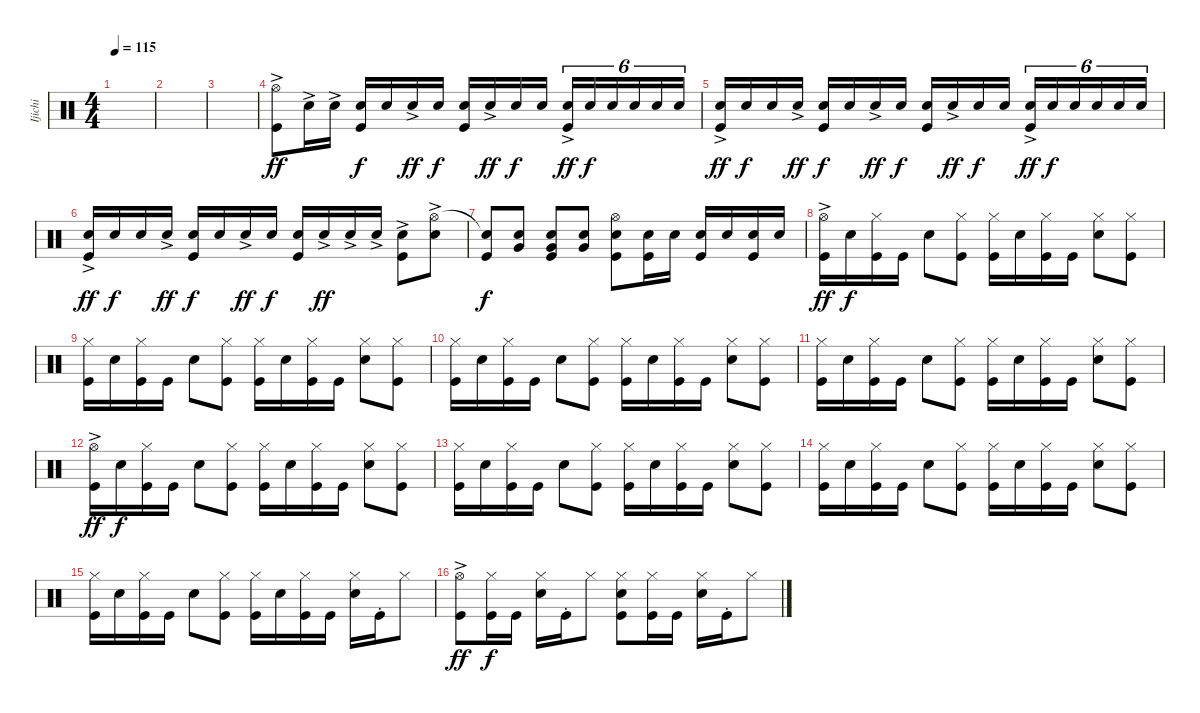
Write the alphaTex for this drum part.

\track ("Ijichi" "Ijichi") {instrument percussion}
\staff {score}
\articulation defaults
\ts (4 4)
\tempo 115
\clef neutral
\ks c
|
|
|
("Hi-Hat (open)"{ac} "Kick (hit)").8{dy ff} "Snare (hit) 2"{ac}.16 "Snare (hit) 2"{ac}.16 ("Snare (hit) 2" "Kick (hit)").16{dy f} "Snare (hit) 2".16 "Snare (hit) 2"{ac}.16{dy ff} "Snare (hit) 2".16{dy f} ("Snare (hit) 2" "Kick (hit)").16 "Snare (hit) 2"{ac}.16{dy ff} "Snare (hit) 2".16{dy f} "Snare (hit) 2".16 ("Snare (hit) 2"{ac} "Kick (hit)").16{tu (6 4) dy ff} "Snare (hit) 2".16{tu (6 4) dy f} "Snare (hit) 2".16{tu (6 4)} "Snare (hit) 2".16{tu (6 4)} "Snare (hit) 2".16{tu (6 4)} "Snare (hit) 2".16{tu (6 4)} |
("Snare (hit) 2"{ac} "Kick (hit)").16{dy ff} "Snare (hit) 2".16{dy f} "Snare (hit) 2".16 "Snare (hit) 2"{ac}.16{dy ff} ("Snare (hit) 2" "Kick (hit)").16{dy f} "Snare (hit) 2".16 "Snare (hit) 2"{ac}.16{dy ff} "Snare (hit) 2".16{dy f} ("Snare (hit) 2" "Kick (hit)").16 "Snare (hit) 2"{ac}.16{dy ff} "Snare (hit) 2".16{dy f} "Snare (hit) 2".16 ("Snare (hit) 2"{ac} "Kick (hit)").16{tu (6 4) dy ff} "Snare (hit) 2".16{tu (6 4) dy f} "Snare (hit) 2".16{tu (6 4)} "Snare (hit) 2".16{tu (6 4)} "Snare (hit) 2".16{tu (6 4)} "Snare (hit) 2".16{tu (6 4)} |
("Snare (hit) 2"{ac} "Kick (hit)").16{dy ff} "Snare (hit) 2".16{dy f} "Snare (hit) 2".16 "Snare (hit) 2"{ac}.16{dy ff} ("Snare (hit) 2" "Kick (hit)").16{dy f} "Snare (hit) 2".16 "Snare (hit) 2"{ac}.16{dy ff} "Snare (hit) 2".16{dy f} ("Snare (hit) 2" "Kick (hit)").16 "Snare (hit) 2"{ac}.16{dy ff} "Snare (hit) 2"{ac}.16 "Snare (hit) 2"{ac}.16 ("Snare (hit) 2"{ac} "Kick (hit)").8 ("Hi-Hat (open)"{ac} "Snare (hit) 2").8 |
("Snare (hit)"{t} "Kick (hit)").8{dy f} ("Snare (hit) 2" "Very Low Tom (hit)").8 ("Snare (hit) 2" "Very Low Tom (hit)" "Kick (hit)").8 ("Snare (hit) 2" "Very Low Tom (hit)").8 ("Hi-Hat (open)" "Snare (hit) 2" "Kick (hit)").8 ("Snare (hit) 2" "Kick (hit)").16 "Snare (hit) 2".16 ("Snare (hit) 2" "Kick (hit)").16 "Snare (hit) 2".16 ("Snare (hit) 2" "Kick (hit)").16 "Snare (hit) 2".16 |
("Hi-Hat (open)"{ac} "Kick (hit)").16{dy ff} "Snare (hit) 2".16{dy f} ("Hi-Hat (closed)" "Kick (hit)").16 "Kick (hit)".16 "Snare (hit) 2".8 ("Hi-Hat (closed)" "Kick (hit)").8 ("Hi-Hat (closed)" "Kick (hit)").16 "Snare (hit) 2".16 ("Hi-Hat (closed)" "Kick (hit)").16 "Kick (hit)".16 ("Hi-Hat (closed)" "Snare (hit) 2").8 ("Hi-Hat (closed)" "Kick (hit)").8 |
("Hi-Hat (closed)" "Kick (hit)").16 "Snare (hit) 2".16 ("Hi-Hat (closed)" "Kick (hit)").16 "Kick (hit)".16 "Snare (hit) 2".8 ("Hi-Hat (closed)" "Kick (hit)").8 ("Hi-Hat (closed)" "Kick (hit)").16 "Snare (hit) 2".16 ("Hi-Hat (closed)" "Kick (hit)").16 "Kick (hit)".16 ("Hi-Hat (closed)" "Snare (hit) 2").8 ("Hi-Hat (closed)" "Kick (hit)").8 |
("Hi-Hat (closed)" "Kick (hit)").16 "Snare (hit) 2".16 ("Hi-Hat (closed)" "Kick (hit)").16 "Kick (hit)".16 "Snare (hit) 2".8 ("Hi-Hat (closed)" "Kick (hit)").8 ("Hi-Hat (closed)" "Kick (hit)").16 "Snare (hit) 2".16 ("Hi-Hat (closed)" "Kick (hit)").16 "Kick (hit)".16 ("Hi-Hat (closed)" "Snare (hit) 2").8 ("Hi-Hat (closed)" "Kick (hit)").8 |
("Hi-Hat (closed)" "Kick (hit)").16 "Snare (hit) 2".16 ("Hi-Hat (closed)" "Kick (hit)").16 "Kick (hit)".16 "Snare (hit) 2".8 ("Hi-Hat (closed)" "Kick (hit)").8 ("Hi-Hat (closed)" "Kick (hit)").16 "Snare (hit) 2".16 ("Hi-Hat (closed)" "Kick (hit)").16 "Kick (hit)".16 ("Hi-Hat (closed)" "Snare (hit) 2").8 ("Hi-Hat (closed)" "Kick (hit)").8 |
("Hi-Hat (open)"{ac} "Kick (hit)").16{dy ff} "Snare (hit) 2".16{dy f} ("Hi-Hat (closed)" "Kick (hit)").16 "Kick (hit)".16 "Snare (hit) 2".8 ("Hi-Hat (closed)" "Kick (hit)").8 ("Hi-Hat (closed)" "Kick (hit)").16 "Snare (hit) 2".16 ("Hi-Hat (closed)" "Kick (hit)").16 "Kick (hit)".16 ("Hi-Hat (closed)" "Snare (hit) 2").8 ("Hi-Hat (closed)" "Kick (hit)").8 |
("Hi-Hat (closed)" "Kick (hit)").16 "Snare (hit) 2".16 ("Hi-Hat (closed)" "Kick (hit)").16 "Kick (hit)".16 "Snare (hit) 2".8 ("Hi-Hat (closed)" "Kick (hit)").8 ("Hi-Hat (closed)" "Kick (hit)").16 "Snare (hit) 2".16 ("Hi-Hat (closed)" "Kick (hit)").16 "Kick (hit)".16 ("Hi-Hat (closed)" "Snare (hit) 2").8 ("Hi-Hat (closed)" "Kick (hit)").8 |
("Hi-Hat (closed)" "Kick (hit)").16 "Snare (hit) 2".16 ("Hi-Hat (closed)" "Kick (hit)").16 "Kick (hit)".16 "Snare (hit) 2".8 ("Hi-Hat (closed)" "Kick (hit)").8 ("Hi-Hat (closed)" "Kick (hit)").16 "Snare (hit) 2".16 ("Hi-Hat (closed)" "Kick (hit)").16 "Kick (hit)".16 ("Hi-Hat (closed)" "Snare (hit) 2").8 ("Hi-Hat (closed)" "Kick (hit)").8 |
("Hi-Hat (closed)" "Kick (hit)").16 "Snare (hit) 2".16 ("Hi-Hat (closed)" "Kick (hit)").16 "Kick (hit)".16 "Snare (hit) 2".8 ("Hi-Hat (closed)" "Kick (hit)").8 ("Hi-Hat (closed)" "Kick (hit)").16 "Snare (hit) 2".16 ("Hi-Hat (closed)" "Kick (hit)").16 "Kick (hit)".16 ("Hi-Hat (closed)" "Snare (hit) 2").16 "Kick (hit)"{st}.16 "Hi-Hat (closed)".8 |
("Hi-Hat (open)"{ac} "Kick (hit)").8{dy ff} ("Hi-Hat (closed)" "Kick (hit)").16{dy f} "Kick (hit)".16 ("Hi-Hat (closed)" "Snare (hit) 2").16 "Kick (hit)"{st}.16 "Hi-Hat (closed)".8 ("Hi-Hat (closed)" "Snare (hit) 2" "Kick (hit)").8 ("Hi-Hat (closed)" "Kick (hit)").16 "Kick (hit)".16 ("Hi-Hat (closed)" "Snare (hit) 2").16 "Kick (hit)"{st}.16 "Hi-Hat (closed)".8
